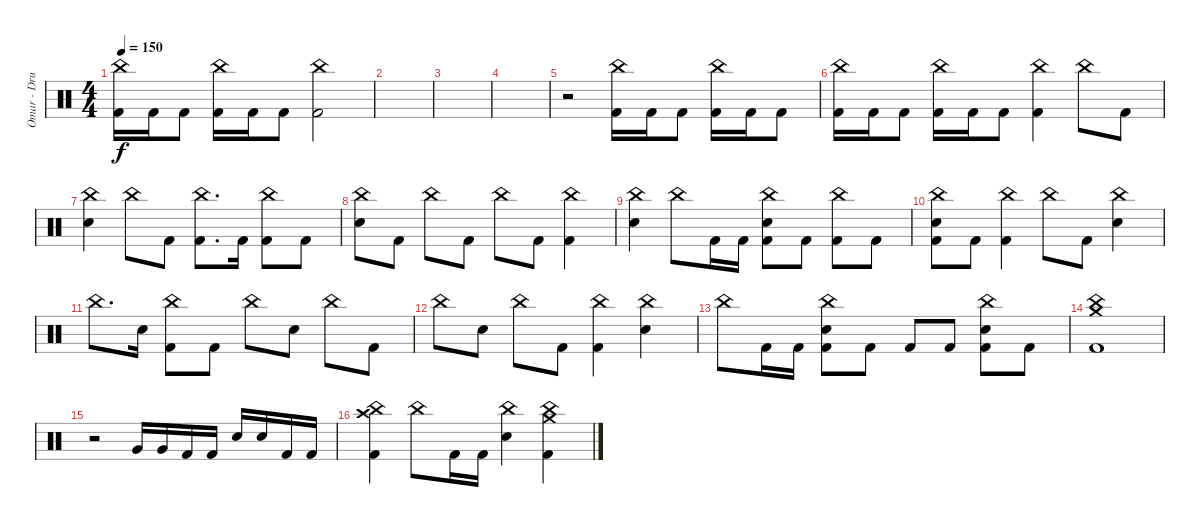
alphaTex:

\track ("Omar - Drums" "Omar - Dru") {instrument percussion}
\staff {score}
\articulation defaults
\ts (4 4)
\tempo 150
\clef neutral
\ks c
("China (hit)" "Kick (hit) 2").16{dy f} "Kick (hit) 2".16 "Kick (hit) 2".8 ("China (hit)" "Kick (hit) 2").16 "Kick (hit) 2".16 "Kick (hit) 2".8 ("China (hit)" "Kick (hit) 2").2 |
|
|
|
r.2 ("China (hit)" "Kick (hit) 2").16 "Kick (hit) 2".16 "Kick (hit) 2".8 ("China (hit)" "Kick (hit) 2").16 "Kick (hit) 2".16 "Kick (hit) 2".8 |
("China (hit)" "Kick (hit) 2").16 "Kick (hit) 2".16 "Kick (hit) 2".8 ("China (hit)" "Kick (hit) 2").16 "Kick (hit) 2".16 "Kick (hit) 2".8 ("China (hit)" "Kick (hit) 2").4 "China (hit)".8 "Kick (hit) 2".8 |
("China (hit)" "Electric Snare (hit)").4 "China (hit)".8 "Kick (hit) 2".8 ("China (hit)" "Kick (hit) 2").8{d} "Kick (hit) 2".16 ("China (hit)" "Kick (hit) 2").8 "Kick (hit) 2".8 |
("China (hit)" "Electric Snare (hit)").8 "Kick (hit) 2".8 "China (hit)".8 "Kick (hit) 2".8 "China (hit)".8 "Kick (hit) 2".8 ("China (hit)" "Kick (hit) 2").4 |
("China (hit)" "Electric Snare (hit)").4 "China (hit)".8 "Kick (hit) 2".16 "Kick (hit) 2".16 ("China (hit)" "Electric Snare (hit)" "Kick (hit) 2").8 "Kick (hit) 2".8 ("China (hit)" "Kick (hit) 2").8 "Kick (hit) 2".8 |
("China (hit)" "Electric Snare (hit)" "Kick (hit) 2").8 "Kick (hit) 2".8 ("China (hit)" "Kick (hit) 2").4 "China (hit)".8 "Kick (hit) 2".8 ("China (hit)" "Electric Snare (hit)").4 |
"China (hit)".8{d} "Electric Snare (hit)".16 ("China (hit)" "Kick (hit) 2").8 "Kick (hit) 2".8 "China (hit)".8 "Electric Snare (hit)".8 "China (hit)".8 "Kick (hit) 2".8 |
"China (hit)".8 "Electric Snare (hit)".8 "China (hit)".8 "Kick (hit) 2".8 ("China (hit)" "Kick (hit) 2").4 ("China (hit)" "Electric Snare (hit)").4 |
"China (hit)".8 "Kick (hit) 2".16 "Kick (hit) 2".16 ("China (hit)" "Electric Snare (hit)" "Kick (hit) 2").8 "Kick (hit) 2".8 "Kick (hit) 2".8 "Kick (hit) 2".8 ("China (hit)" "Electric Snare (hit)" "Kick (hit) 2").8 "Kick (hit) 2".8 |
("China (hit)" "Crash medium (hit)" "Kick (hit) 2").1 |
r.2 "Very Low Tom (hit)".16 "Very Low Tom (hit)".16 "Kick (hit) 2".16 "Kick (hit) 2".16 "Electric Snare (hit)".16 "Electric Snare (hit)".16 "Kick (hit) 2".16 "Kick (hit) 2".16 |
("China (hit)" "Crash high (hit)" "Kick (hit) 2").4 "China (hit)".8 "Kick (hit) 2".16 "Kick (hit) 2".16 ("China (hit)" "Electric Snare (hit)").4 ("China (hit)" "Crash medium (hit)" "Kick (hit) 2").4
